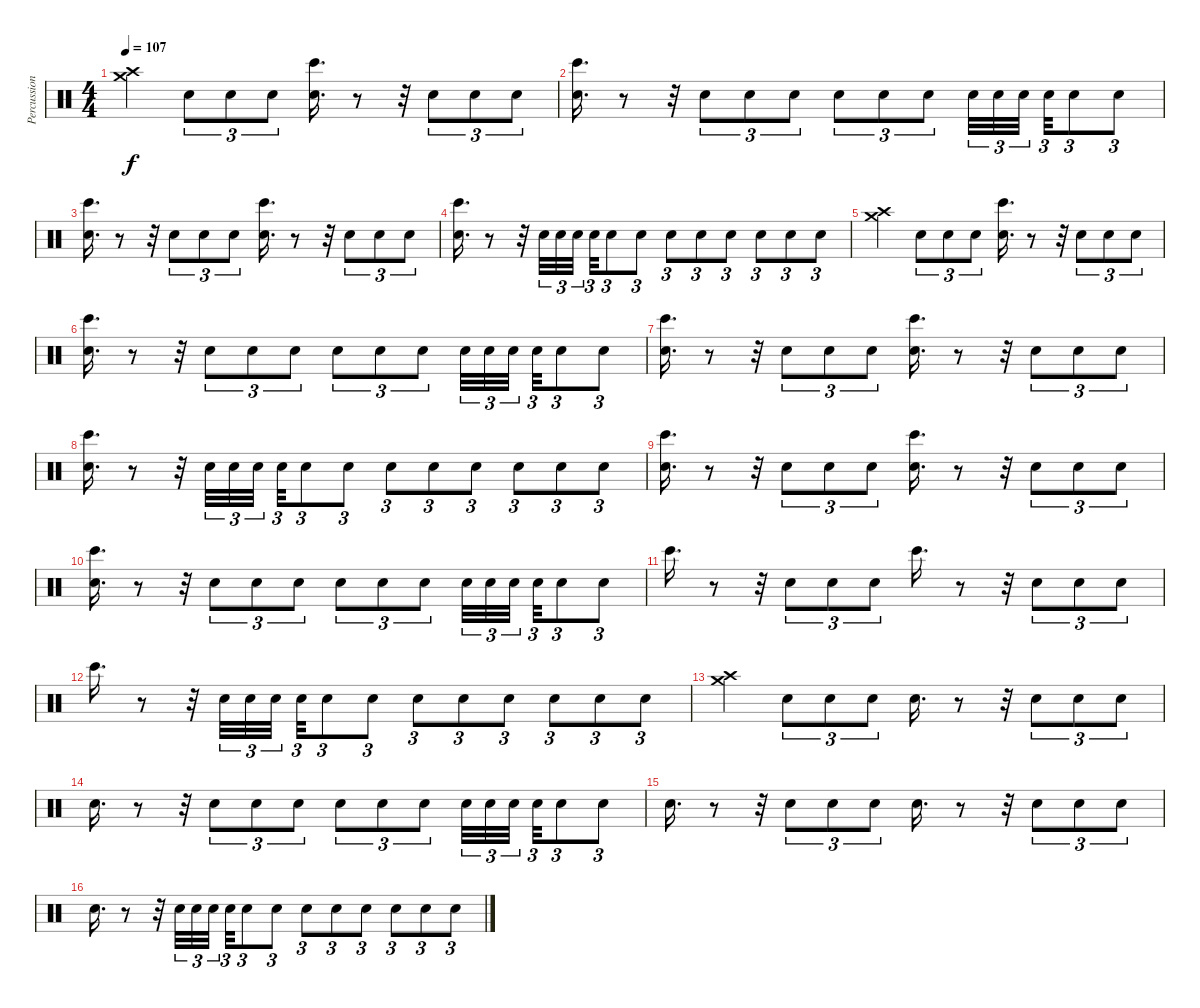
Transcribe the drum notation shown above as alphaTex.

\track ("Percussion" "Percussion") {instrument percussion}
\staff {score}
\articulation defaults
\ts (4 4)
\tempo 107
\clef neutral
\ks c
("Crash medium (hit)" "Crash high (hit)").4{dy f} "Electric Snare (hit)".8{tu (3 2)} "Electric Snare (hit)".8{tu (3 2)} "Electric Snare (hit)".8{tu (3 2)} ("Bongo High (hit)" "Hand Clap (hit)").16{d} r.8 r.32 "Electric Snare (hit)".8{tu (3 2)} "Electric Snare (hit)".8{tu (3 2)} "Electric Snare (hit)".8{tu (3 2)} |
("Hand Clap (hit)" "Bongo High (hit)").16{d} r.8 r.32 "Electric Snare (hit)".8{tu (3 2)} "Electric Snare (hit)".8{tu (3 2)} "Electric Snare (hit)".8{tu (3 2)} "Electric Snare (hit)".8{tu (3 2)} "Electric Snare (hit)".8{tu (3 2)} "Electric Snare (hit)".8{tu (3 2)} "Electric Snare (hit)".32{tu (3 2)} "Electric Snare (hit)".32{tu (3 2)} "Electric Snare (hit)".32{tu (3 2) beam splitsecondary} "Electric Snare (hit)".32{tu (3 2)} "Electric Snare (hit)".8{tu (3 2)} "Electric Snare (hit)".8{tu (3 2)} |
("Bongo High (hit)" "Hand Clap (hit)").16{d} r.8 r.32 "Electric Snare (hit)".8{tu (3 2)} "Electric Snare (hit)".8{tu (3 2)} "Electric Snare (hit)".8{tu (3 2)} ("Hand Clap (hit)" "Bongo High (hit)").16{d} r.8 r.32 "Electric Snare (hit)".8{tu (3 2)} "Electric Snare (hit)".8{tu (3 2)} "Electric Snare (hit)".8{tu (3 2)} |
("Hand Clap (hit)" "Bongo High (hit)").16{d} r.8 r.32 "Electric Snare (hit)".32{tu (3 2)} "Electric Snare (hit)".32{tu (3 2)} "Electric Snare (hit)".32{tu (3 2) beam splitsecondary} "Electric Snare (hit)".32{tu (3 2)} "Electric Snare (hit)".8{tu (3 2)} "Electric Snare (hit)".8{tu (3 2)} "Electric Snare (hit)".8{tu (3 2)} "Electric Snare (hit)".8{tu (3 2)} "Electric Snare (hit)".8{tu (3 2)} "Electric Snare (hit)".8{tu (3 2)} "Electric Snare (hit)".8{tu (3 2)} "Electric Snare (hit)".8{tu (3 2)} |
("Crash high (hit)" "Crash medium (hit)").4 "Electric Snare (hit)".8{tu (3 2)} "Electric Snare (hit)".8{tu (3 2)} "Electric Snare (hit)".8{tu (3 2)} ("Bongo High (hit)" "Hand Clap (hit)").16{d} r.8 r.32 "Electric Snare (hit)".8{tu (3 2)} "Electric Snare (hit)".8{tu (3 2)} "Electric Snare (hit)".8{tu (3 2)} |
("Bongo High (hit)" "Hand Clap (hit)").16{d} r.8 r.32 "Electric Snare (hit)".8{tu (3 2)} "Electric Snare (hit)".8{tu (3 2)} "Electric Snare (hit)".8{tu (3 2)} "Electric Snare (hit)".8{tu (3 2)} "Electric Snare (hit)".8{tu (3 2)} "Electric Snare (hit)".8{tu (3 2)} "Electric Snare (hit)".32{tu (3 2)} "Electric Snare (hit)".32{tu (3 2)} "Electric Snare (hit)".32{tu (3 2) beam splitsecondary} "Electric Snare (hit)".32{tu (3 2)} "Electric Snare (hit)".8{tu (3 2)} "Electric Snare (hit)".8{tu (3 2)} |
("Bongo High (hit)" "Hand Clap (hit)").16{d} r.8 r.32 "Electric Snare (hit)".8{tu (3 2)} "Electric Snare (hit)".8{tu (3 2)} "Electric Snare (hit)".8{tu (3 2)} ("Hand Clap (hit)" "Bongo High (hit)").16{d} r.8 r.32 "Electric Snare (hit)".8{tu (3 2)} "Electric Snare (hit)".8{tu (3 2)} "Electric Snare (hit)".8{tu (3 2)} |
("Bongo High (hit)" "Hand Clap (hit)").16{d} r.8 r.32 "Electric Snare (hit)".32{tu (3 2)} "Electric Snare (hit)".32{tu (3 2)} "Electric Snare (hit)".32{tu (3 2) beam splitsecondary} "Electric Snare (hit)".32{tu (3 2)} "Electric Snare (hit)".8{tu (3 2)} "Electric Snare (hit)".8{tu (3 2)} "Electric Snare (hit)".8{tu (3 2)} "Electric Snare (hit)".8{tu (3 2)} "Electric Snare (hit)".8{tu (3 2)} "Electric Snare (hit)".8{tu (3 2)} "Electric Snare (hit)".8{tu (3 2)} "Electric Snare (hit)".8{tu (3 2)} |
("Hand Clap (hit)" "Bongo High (hit)").16{d} r.8 r.32 "Electric Snare (hit)".8{tu (3 2)} "Electric Snare (hit)".8{tu (3 2)} "Electric Snare (hit)".8{tu (3 2)} ("Hand Clap (hit)" "Bongo High (hit)").16{d} r.8 r.32 "Electric Snare (hit)".8{tu (3 2)} "Electric Snare (hit)".8{tu (3 2)} "Electric Snare (hit)".8{tu (3 2)} |
("Bongo High (hit)" "Hand Clap (hit)").16{d} r.8 r.32 "Electric Snare (hit)".8{tu (3 2)} "Electric Snare (hit)".8{tu (3 2)} "Electric Snare (hit)".8{tu (3 2)} "Electric Snare (hit)".8{tu (3 2)} "Electric Snare (hit)".8{tu (3 2)} "Electric Snare (hit)".8{tu (3 2)} "Electric Snare (hit)".32{tu (3 2)} "Electric Snare (hit)".32{tu (3 2)} "Electric Snare (hit)".32{tu (3 2) beam splitsecondary} "Electric Snare (hit)".32{tu (3 2)} "Electric Snare (hit)".8{tu (3 2)} "Electric Snare (hit)".8{tu (3 2)} |
"Bongo High (hit)".16{d} r.8 r.32 "Electric Snare (hit)".8{tu (3 2)} "Electric Snare (hit)".8{tu (3 2)} "Electric Snare (hit)".8{tu (3 2)} "Bongo High (hit)".16{d} r.8 r.32 "Electric Snare (hit)".8{tu (3 2)} "Electric Snare (hit)".8{tu (3 2)} "Electric Snare (hit)".8{tu (3 2)} |
"Bongo High (hit)".16{d} r.8 r.32 "Electric Snare (hit)".32{tu (3 2)} "Electric Snare (hit)".32{tu (3 2)} "Electric Snare (hit)".32{tu (3 2) beam splitsecondary} "Electric Snare (hit)".32{tu (3 2)} "Electric Snare (hit)".8{tu (3 2)} "Electric Snare (hit)".8{tu (3 2)} "Electric Snare (hit)".8{tu (3 2)} "Electric Snare (hit)".8{tu (3 2)} "Electric Snare (hit)".8{tu (3 2)} "Electric Snare (hit)".8{tu (3 2)} "Electric Snare (hit)".8{tu (3 2)} "Electric Snare (hit)".8{tu (3 2)} |
("Crash medium (hit)" "Crash high (hit)").4 "Electric Snare (hit)".8{tu (3 2)} "Electric Snare (hit)".8{tu (3 2)} "Electric Snare (hit)".8{tu (3 2)} "Hand Clap (hit)".16{d} r.8 r.32 "Electric Snare (hit)".8{tu (3 2)} "Electric Snare (hit)".8{tu (3 2)} "Electric Snare (hit)".8{tu (3 2)} |
"Hand Clap (hit)".16{d} r.8 r.32 "Electric Snare (hit)".8{tu (3 2)} "Electric Snare (hit)".8{tu (3 2)} "Electric Snare (hit)".8{tu (3 2)} "Electric Snare (hit)".8{tu (3 2)} "Electric Snare (hit)".8{tu (3 2)} "Electric Snare (hit)".8{tu (3 2)} "Electric Snare (hit)".32{tu (3 2)} "Electric Snare (hit)".32{tu (3 2)} "Electric Snare (hit)".32{tu (3 2) beam splitsecondary} "Electric Snare (hit)".32{tu (3 2)} "Electric Snare (hit)".8{tu (3 2)} "Electric Snare (hit)".8{tu (3 2)} |
"Hand Clap (hit)".16{d} r.8 r.32 "Electric Snare (hit)".8{tu (3 2)} "Electric Snare (hit)".8{tu (3 2)} "Electric Snare (hit)".8{tu (3 2)} "Hand Clap (hit)".16{d} r.8 r.32 "Electric Snare (hit)".8{tu (3 2)} "Electric Snare (hit)".8{tu (3 2)} "Electric Snare (hit)".8{tu (3 2)} |
"Hand Clap (hit)".16{d} r.8 r.32 "Electric Snare (hit)".32{tu (3 2)} "Electric Snare (hit)".32{tu (3 2)} "Electric Snare (hit)".32{tu (3 2) beam splitsecondary} "Electric Snare (hit)".32{tu (3 2)} "Electric Snare (hit)".8{tu (3 2)} "Electric Snare (hit)".8{tu (3 2)} "Electric Snare (hit)".8{tu (3 2)} "Electric Snare (hit)".8{tu (3 2)} "Electric Snare (hit)".8{tu (3 2)} "Electric Snare (hit)".8{tu (3 2)} "Electric Snare (hit)".8{tu (3 2)} "Electric Snare (hit)".8{tu (3 2)}
